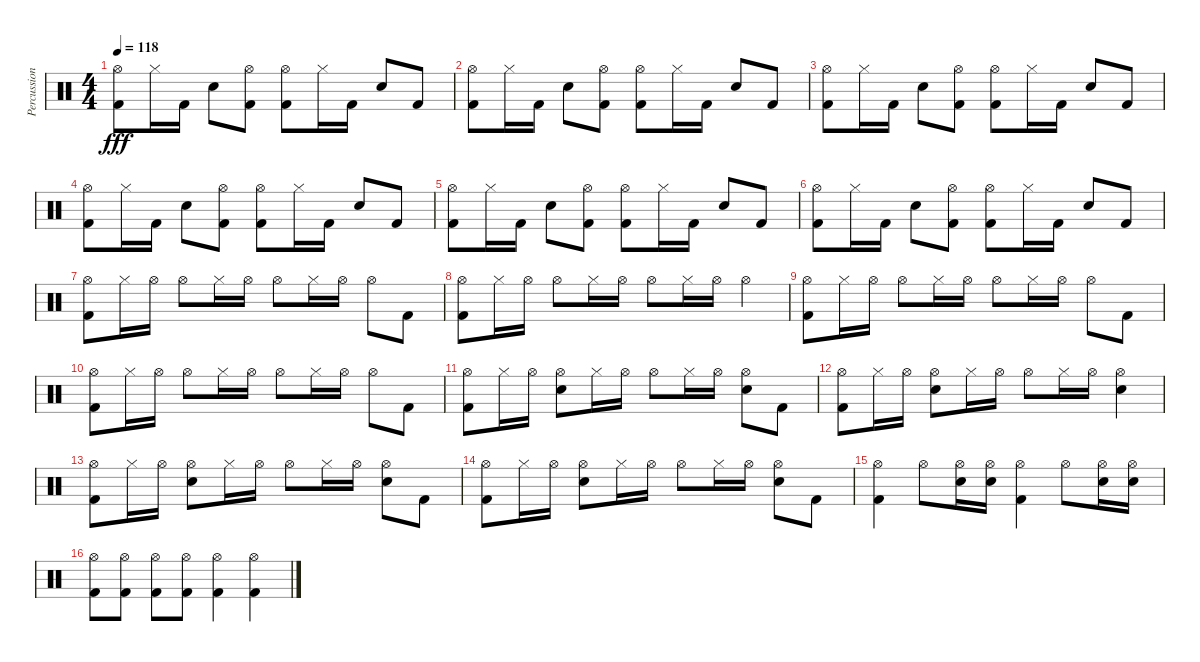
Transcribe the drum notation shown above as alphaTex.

\track ("Percussion" "Percussion") {instrument percussion}
\staff {score}
\articulation defaults
\ts (4 4)
\tempo 118
\clef neutral
\ks c
("Hi-Hat (open)" "Kick (hit) 2").8{dy fff} "Hi-Hat (closed)".16 "Kick (hit) 2".16 "Electric Snare (hit)".8 ("Hi-Hat (open)" "Kick (hit) 2").8 ("Hi-Hat (open)" "Kick (hit) 2").8 "Hi-Hat (closed)".16 "Kick (hit) 2".16 "Electric Snare (hit)".8 "Kick (hit) 2".8 |
("Hi-Hat (open)" "Kick (hit) 2").8 "Hi-Hat (closed)".16 "Kick (hit) 2".16 "Electric Snare (hit)".8 ("Hi-Hat (open)" "Kick (hit) 2").8 ("Hi-Hat (open)" "Kick (hit) 2").8 "Hi-Hat (closed)".16 "Kick (hit) 2".16 "Electric Snare (hit)".8 "Kick (hit) 2".8 |
("Hi-Hat (open)" "Kick (hit) 2").8 "Hi-Hat (closed)".16 "Kick (hit) 2".16 "Electric Snare (hit)".8 ("Hi-Hat (open)" "Kick (hit) 2").8 ("Hi-Hat (open)" "Kick (hit) 2").8 "Hi-Hat (closed)".16 "Kick (hit) 2".16 "Electric Snare (hit)".8 "Kick (hit) 2".8 |
("Hi-Hat (open)" "Kick (hit) 2").8 "Hi-Hat (closed)".16 "Kick (hit) 2".16 "Electric Snare (hit)".8 ("Hi-Hat (open)" "Kick (hit) 2").8 ("Hi-Hat (open)" "Kick (hit) 2").8 "Hi-Hat (closed)".16 "Kick (hit) 2".16 "Electric Snare (hit)".8 "Kick (hit) 2".8 |
("Hi-Hat (open)" "Kick (hit) 2").8 "Hi-Hat (closed)".16 "Kick (hit) 2".16 "Electric Snare (hit)".8 ("Hi-Hat (open)" "Kick (hit) 2").8 ("Hi-Hat (open)" "Kick (hit) 2").8 "Hi-Hat (closed)".16 "Kick (hit) 2".16 "Electric Snare (hit)".8 "Kick (hit) 2".8 |
("Hi-Hat (open)" "Kick (hit) 2").8 "Hi-Hat (closed)".16 "Kick (hit) 2".16 "Electric Snare (hit)".8 ("Hi-Hat (open)" "Kick (hit) 2").8 ("Hi-Hat (open)" "Kick (hit) 2").8 "Hi-Hat (closed)".16 "Kick (hit) 2".16 "Electric Snare (hit)".8 "Kick (hit) 2".8 |
("Hi-Hat (open)" "Kick (hit) 2").8 "Hi-Hat (closed)".16 "Hi-Hat (open)".16 "Hi-Hat (open)".8 "Hi-Hat (closed)".16 "Hi-Hat (open)".16 "Hi-Hat (open)".8 "Hi-Hat (closed)".16 "Hi-Hat (open)".16 "Hi-Hat (open)".8 "Kick (hit) 2".8 |
("Hi-Hat (open)" "Kick (hit) 2").8 "Hi-Hat (closed)".16 "Hi-Hat (open)".16 "Hi-Hat (open)".8 "Hi-Hat (closed)".16 "Hi-Hat (open)".16 "Hi-Hat (open)".8 "Hi-Hat (closed)".16 "Hi-Hat (open)".16 "Hi-Hat (open)".4 |
("Hi-Hat (open)" "Kick (hit) 2").8 "Hi-Hat (closed)".16 "Hi-Hat (open)".16 "Hi-Hat (open)".8 "Hi-Hat (closed)".16 "Hi-Hat (open)".16 "Hi-Hat (open)".8 "Hi-Hat (closed)".16 "Hi-Hat (open)".16 "Hi-Hat (open)".8 "Kick (hit) 2".8 |
("Hi-Hat (open)" "Kick (hit) 2").8 "Hi-Hat (closed)".16 "Hi-Hat (open)".16 "Hi-Hat (open)".8 "Hi-Hat (closed)".16 "Hi-Hat (open)".16 "Hi-Hat (open)".8 "Hi-Hat (closed)".16 "Hi-Hat (open)".16 "Hi-Hat (open)".8 "Kick (hit) 2".8 |
("Hi-Hat (open)" "Kick (hit) 2").8 "Hi-Hat (closed)".16 "Hi-Hat (open)".16 ("Hi-Hat (open)" "Electric Snare (hit)").8 "Hi-Hat (closed)".16 "Hi-Hat (open)".16 "Hi-Hat (open)".8 "Hi-Hat (closed)".16 "Hi-Hat (open)".16 ("Hi-Hat (open)" "Electric Snare (hit)").8 "Kick (hit) 2".8 |
("Hi-Hat (open)" "Kick (hit) 2").8 "Hi-Hat (closed)".16 "Hi-Hat (open)".16 ("Hi-Hat (open)" "Electric Snare (hit)").8 "Hi-Hat (closed)".16 "Hi-Hat (open)".16 "Hi-Hat (open)".8 "Hi-Hat (closed)".16 "Hi-Hat (open)".16 ("Hi-Hat (open)" "Electric Snare (hit)").4 |
("Hi-Hat (open)" "Kick (hit) 2").8 "Hi-Hat (closed)".16 "Hi-Hat (open)".16 ("Hi-Hat (open)" "Electric Snare (hit)").8 "Hi-Hat (closed)".16 "Hi-Hat (open)".16 "Hi-Hat (open)".8 "Hi-Hat (closed)".16 "Hi-Hat (open)".16 ("Hi-Hat (open)" "Electric Snare (hit)").8 "Kick (hit) 2".8 |
("Hi-Hat (open)" "Kick (hit) 2").8 "Hi-Hat (closed)".16 "Hi-Hat (open)".16 ("Hi-Hat (open)" "Electric Snare (hit)").8 "Hi-Hat (closed)".16 "Hi-Hat (open)".16 "Hi-Hat (open)".8 "Hi-Hat (closed)".16 "Hi-Hat (open)".16 ("Hi-Hat (open)" "Electric Snare (hit)").8 "Kick (hit) 2".8 |
("Hi-Hat (open)" "Kick (hit) 2").4 "Hi-Hat (open)".8 ("Hi-Hat (open)" "Electric Snare (hit)").16 ("Hi-Hat (open)" "Electric Snare (hit)").16 ("Hi-Hat (open)" "Kick (hit) 2").4 "Hi-Hat (open)".8 ("Hi-Hat (open)" "Electric Snare (hit)").16 ("Hi-Hat (open)" "Electric Snare (hit)").16 |
("Hi-Hat (open)" "Kick (hit) 2").8 ("Hi-Hat (open)" "Kick (hit) 2").8 ("Hi-Hat (open)" "Kick (hit) 2").8 ("Hi-Hat (open)" "Kick (hit) 2").8 ("Hi-Hat (open)" "Kick (hit) 2").4 ("Hi-Hat (open)" "Kick (hit) 2").4
